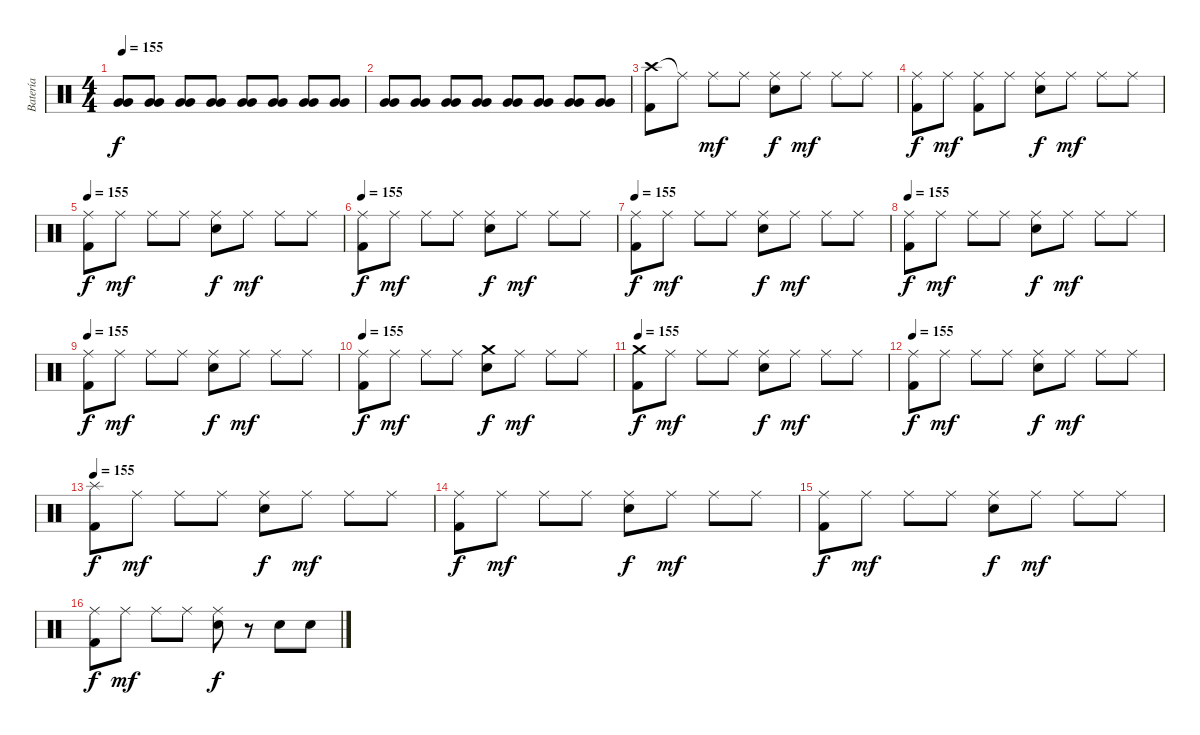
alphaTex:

\track ("Batería" "Batería") {instrument percussion}
\staff {score}
\articulation defaults
\ts (4 4)
\tempo 155
\clef neutral
\ks c
("Very Low Tom (hit)" "Very Low Tom (hit)").8{dy f} ("Very Low Tom (hit)" "Very Low Tom (hit)").8 ("Very Low Tom (hit)" "Very Low Tom (hit)").8 ("Very Low Tom (hit)" "Very Low Tom (hit)").8 ("Very Low Tom (hit)" "Very Low Tom (hit)").8 ("Very Low Tom (hit)" "Very Low Tom (hit)").8 ("Very Low Tom (hit)" "Very Low Tom (hit)").8 ("Very Low Tom (hit)" "Very Low Tom (hit)").8 |
("Very Low Tom (hit)" "Very Low Tom (hit)").8 ("Very Low Tom (hit)" "Very Low Tom (hit)").8 ("Very Low Tom (hit)" "Very Low Tom (hit)").8 ("Very Low Tom (hit)" "Very Low Tom (hit)").8 ("Very Low Tom (hit)" "Very Low Tom (hit)").8 ("Very Low Tom (hit)" "Very Low Tom (hit)").8 ("Very Low Tom (hit)" "Very Low Tom (hit)").8 ("Very Low Tom (hit)" "Very Low Tom (hit)").8 |
("Crash high (hit)" "Kick (hit) 2").8 "Ride (middle)"{t}.8 "Ride (middle)".8{dy mf} "Ride (middle)".8 ("Ride (middle)" "Snare (hit) 2").8{dy f} "Ride (middle)".8{dy mf} "Ride (middle)".8 "Ride (middle)".8 |
("Ride (middle)" "Kick (hit) 2").8{dy f} "Ride (middle)".8{dy mf} ("Ride (middle)" "Kick (hit) 2").8 "Ride (middle)".8 ("Ride (middle)" "Snare (hit) 2").8{dy f} "Ride (middle)".8{dy mf} "Ride (middle)".8 "Ride (middle)".8 |
\tempo 155
("Ride (middle)" "Kick (hit) 2").8{dy f volume 9} "Ride (middle)".8{dy mf} "Ride (middle)".8 "Ride (middle)".8 ("Ride (middle)" "Snare (hit) 2").8{dy f} "Ride (middle)".8{dy mf} "Ride (middle)".8 "Ride (middle)".8 |
\tempo 155
("Ride (middle)" "Kick (hit) 2").8{dy f} "Ride (middle)".8{dy mf} "Ride (middle)".8 "Ride (middle)".8 ("Ride (middle)" "Snare (hit) 2").8{dy f} "Ride (middle)".8{dy mf} "Ride (middle)".8 "Ride (middle)".8 |
\tempo 155
("Ride (middle)" "Kick (hit) 2").8{dy f} "Ride (middle)".8{dy mf} "Ride (middle)".8 "Ride (middle)".8 ("Ride (middle)" "Snare (hit) 2").8{dy f} "Ride (middle)".8{dy mf} "Ride (middle)".8 "Ride (middle)".8 |
\tempo 155
("Ride (middle)" "Kick (hit) 2").8{dy f} "Ride (middle)".8{dy mf} "Ride (middle)".8 "Ride (middle)".8 ("Ride (middle)" "Snare (hit) 2").8{dy f} "Ride (middle)".8{dy mf} "Ride (middle)".8 "Ride (middle)".8 |
\tempo 155
("Ride (middle)" "Kick (hit) 2").8{dy f volume 6} "Ride (middle)".8{dy mf} "Ride (middle)".8 "Ride (middle)".8 ("Ride (middle)" "Snare (hit) 2").8{dy f} "Ride (middle)".8{dy mf} "Ride (middle)".8 "Ride (middle)".8 |
\tempo 155
("Ride (middle)" "Kick (hit) 2").8{dy f} "Ride (middle)".8{dy mf} "Ride (middle)".8 "Ride (middle)".8 ("Crash medium (hit)" "Snare (hit) 2").8{dy f} "Ride (middle)".8{dy mf} "Ride (middle)".8 "Ride (middle)".8 |
\tempo 155
("Crash medium (hit)" "Kick (hit) 2").8{dy f} "Ride (middle)".8{dy mf} "Ride (middle)".8 "Ride (middle)".8 ("Ride (middle)" "Snare (hit) 2").8{dy f} "Ride (middle)".8{dy mf} "Ride (middle)".8 "Ride (middle)".8 |
\tempo 155
("Ride (middle)" "Kick (hit) 2").8{dy f} "Ride (middle)".8{dy mf} "Ride (middle)".8 "Ride (middle)".8 ("Ride (middle)" "Snare (hit) 2").8{dy f} "Ride (middle)".8{dy mf} "Ride (middle)".8 "Ride (middle)".8 |
\tempo 155
("Splash (hit)" "Kick (hit) 2").8{dy f volume 3} "Ride (middle)".8{dy mf} "Ride (middle)".8 "Ride (middle)".8 ("Ride (middle)" "Snare (hit) 2").8{dy f} "Ride (middle)".8{dy mf} "Ride (middle)".8 "Ride (middle)".8 |
("Ride (middle)" "Kick (hit) 2").8{dy f} "Ride (middle)".8{dy mf} "Ride (middle)".8 "Ride (middle)".8 ("Ride (middle)" "Snare (hit) 2").8{dy f} "Ride (middle)".8{dy mf} "Ride (middle)".8 "Ride (middle)".8 |
("Ride (middle)" "Kick (hit) 2").8{dy f} "Ride (middle)".8{dy mf} "Ride (middle)".8 "Ride (middle)".8 ("Ride (middle)" "Snare (hit) 2").8{dy f} "Ride (middle)".8{dy mf} "Ride (middle)".8 "Ride (middle)".8 |
("Ride (middle)" "Kick (hit) 2").8{dy f} "Ride (middle)".8{dy mf} "Ride (middle)".8 "Ride (middle)".8 ("Ride (middle)" "Snare (hit) 2").8{dy f} r.8 "Snare (hit) 2".8 "Snare (hit) 2".8
